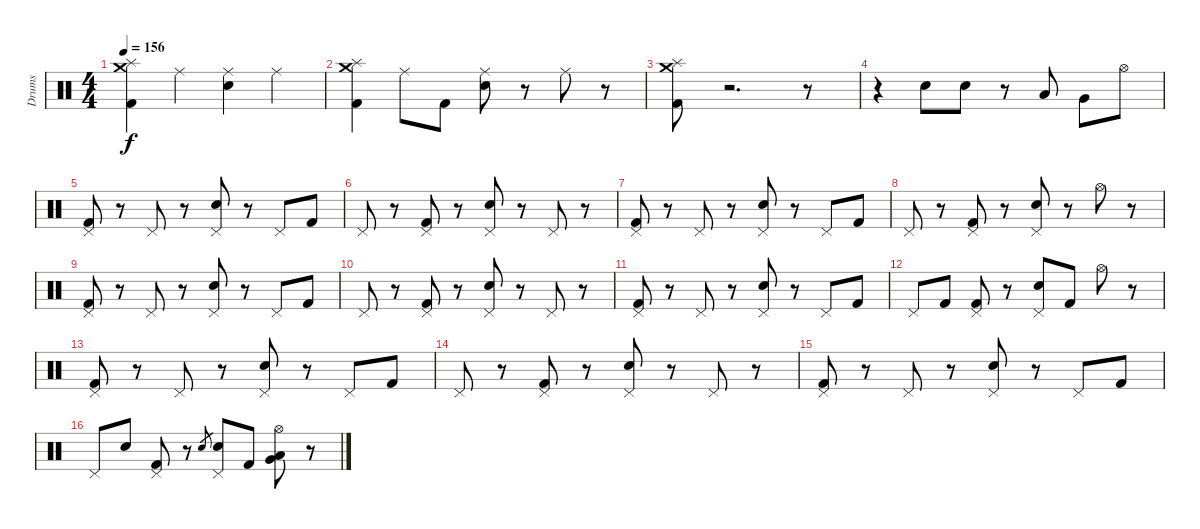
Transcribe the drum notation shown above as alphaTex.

\track ("Drums" "Drums") {instrument percussion}
\staff {score}
\articulation defaults
\ts (4 4)
\tempo 156
\clef neutral
\ks c
("Crash medium (hit)" "Splash (hit)" "Kick (hit) 2").4{dy f} "Ride (middle)".4 ("Ride (middle)" "Electric Snare (hit)").4 "Ride (middle)".4 |
("Crash medium (hit)" "Splash (hit)" "Kick (hit) 2").4 "Ride (middle)".8 "Kick (hit) 2".8 ("Ride (middle)" "Electric Snare (hit)").8 r.8 "Ride (middle)".8 r.8 |
("Crash medium (hit)" "Splash (hit)" "Kick (hit) 2").8 r.2{d} r.8 |
r.4 "Electric Snare (hit)".8 "Electric Snare (hit)".8 r.8 "Low Tom (hit)".8 "Very Low Tom (hit)".8 "Hi-Hat (open)".8 |
("Pedal Hi-Hat (hit)" "Kick (hit) 2").8 r.8 "Pedal Hi-Hat (hit)".8 r.8 ("Pedal Hi-Hat (hit)" "Electric Snare (hit)").8 r.8 "Pedal Hi-Hat (hit)".8 "Kick (hit) 2".8 |
"Pedal Hi-Hat (hit)".8 r.8 ("Pedal Hi-Hat (hit)" "Kick (hit) 2").8 r.8 ("Pedal Hi-Hat (hit)" "Electric Snare (hit)").8 r.8 "Pedal Hi-Hat (hit)".8 r.8 |
("Pedal Hi-Hat (hit)" "Kick (hit) 2").8 r.8 "Pedal Hi-Hat (hit)".8 r.8 ("Pedal Hi-Hat (hit)" "Electric Snare (hit)").8 r.8 "Pedal Hi-Hat (hit)".8 "Kick (hit) 2".8 |
"Pedal Hi-Hat (hit)".8 r.8 ("Pedal Hi-Hat (hit)" "Kick (hit) 2").8 r.8 ("Pedal Hi-Hat (hit)" "Electric Snare (hit)").8 r.8 "Hi-Hat (open)".8 r.8 |
("Pedal Hi-Hat (hit)" "Kick (hit) 2").8 r.8 "Pedal Hi-Hat (hit)".8 r.8 ("Pedal Hi-Hat (hit)" "Electric Snare (hit)").8 r.8 "Pedal Hi-Hat (hit)".8 "Kick (hit) 2".8 |
"Pedal Hi-Hat (hit)".8 r.8 ("Pedal Hi-Hat (hit)" "Kick (hit) 2").8 r.8 ("Pedal Hi-Hat (hit)" "Electric Snare (hit)").8 r.8 "Pedal Hi-Hat (hit)".8 r.8 |
("Pedal Hi-Hat (hit)" "Kick (hit) 2").8 r.8 "Pedal Hi-Hat (hit)".8 r.8 ("Pedal Hi-Hat (hit)" "Electric Snare (hit)").8 r.8 "Pedal Hi-Hat (hit)".8 "Kick (hit) 2".8 |
"Pedal Hi-Hat (hit)".8 "Kick (hit) 2".8 ("Pedal Hi-Hat (hit)" "Kick (hit) 2").8 r.8 ("Pedal Hi-Hat (hit)" "Electric Snare (hit)").8 "Kick (hit) 2".8 "Hi-Hat (open)".8 r.8 |
("Pedal Hi-Hat (hit)" "Kick (hit) 2").8 r.8 "Pedal Hi-Hat (hit)".8 r.8 ("Pedal Hi-Hat (hit)" "Electric Snare (hit)").8 r.8 "Pedal Hi-Hat (hit)".8 "Kick (hit) 2".8 |
"Pedal Hi-Hat (hit)".8 r.8 ("Pedal Hi-Hat (hit)" "Kick (hit) 2").8 r.8 ("Pedal Hi-Hat (hit)" "Electric Snare (hit)").8 r.8 "Pedal Hi-Hat (hit)".8 r.8 |
("Pedal Hi-Hat (hit)" "Kick (hit) 2").8 r.8 "Pedal Hi-Hat (hit)".8 r.8 ("Pedal Hi-Hat (hit)" "Electric Snare (hit)").8 r.8 "Pedal Hi-Hat (hit)".8 "Kick (hit) 2".8 |
"Pedal Hi-Hat (hit)".8 "Electric Snare (hit)".8 ("Pedal Hi-Hat (hit)" "Kick (hit) 2").8 r.8 "Electric Snare (hit)".8{gr} ("Pedal Hi-Hat (hit)" "Electric Snare (hit)").8 "Kick (hit) 2".8 ("Hi-Hat (open)" "Low Tom (hit)" "Very Low Tom (hit)").8 r.8
